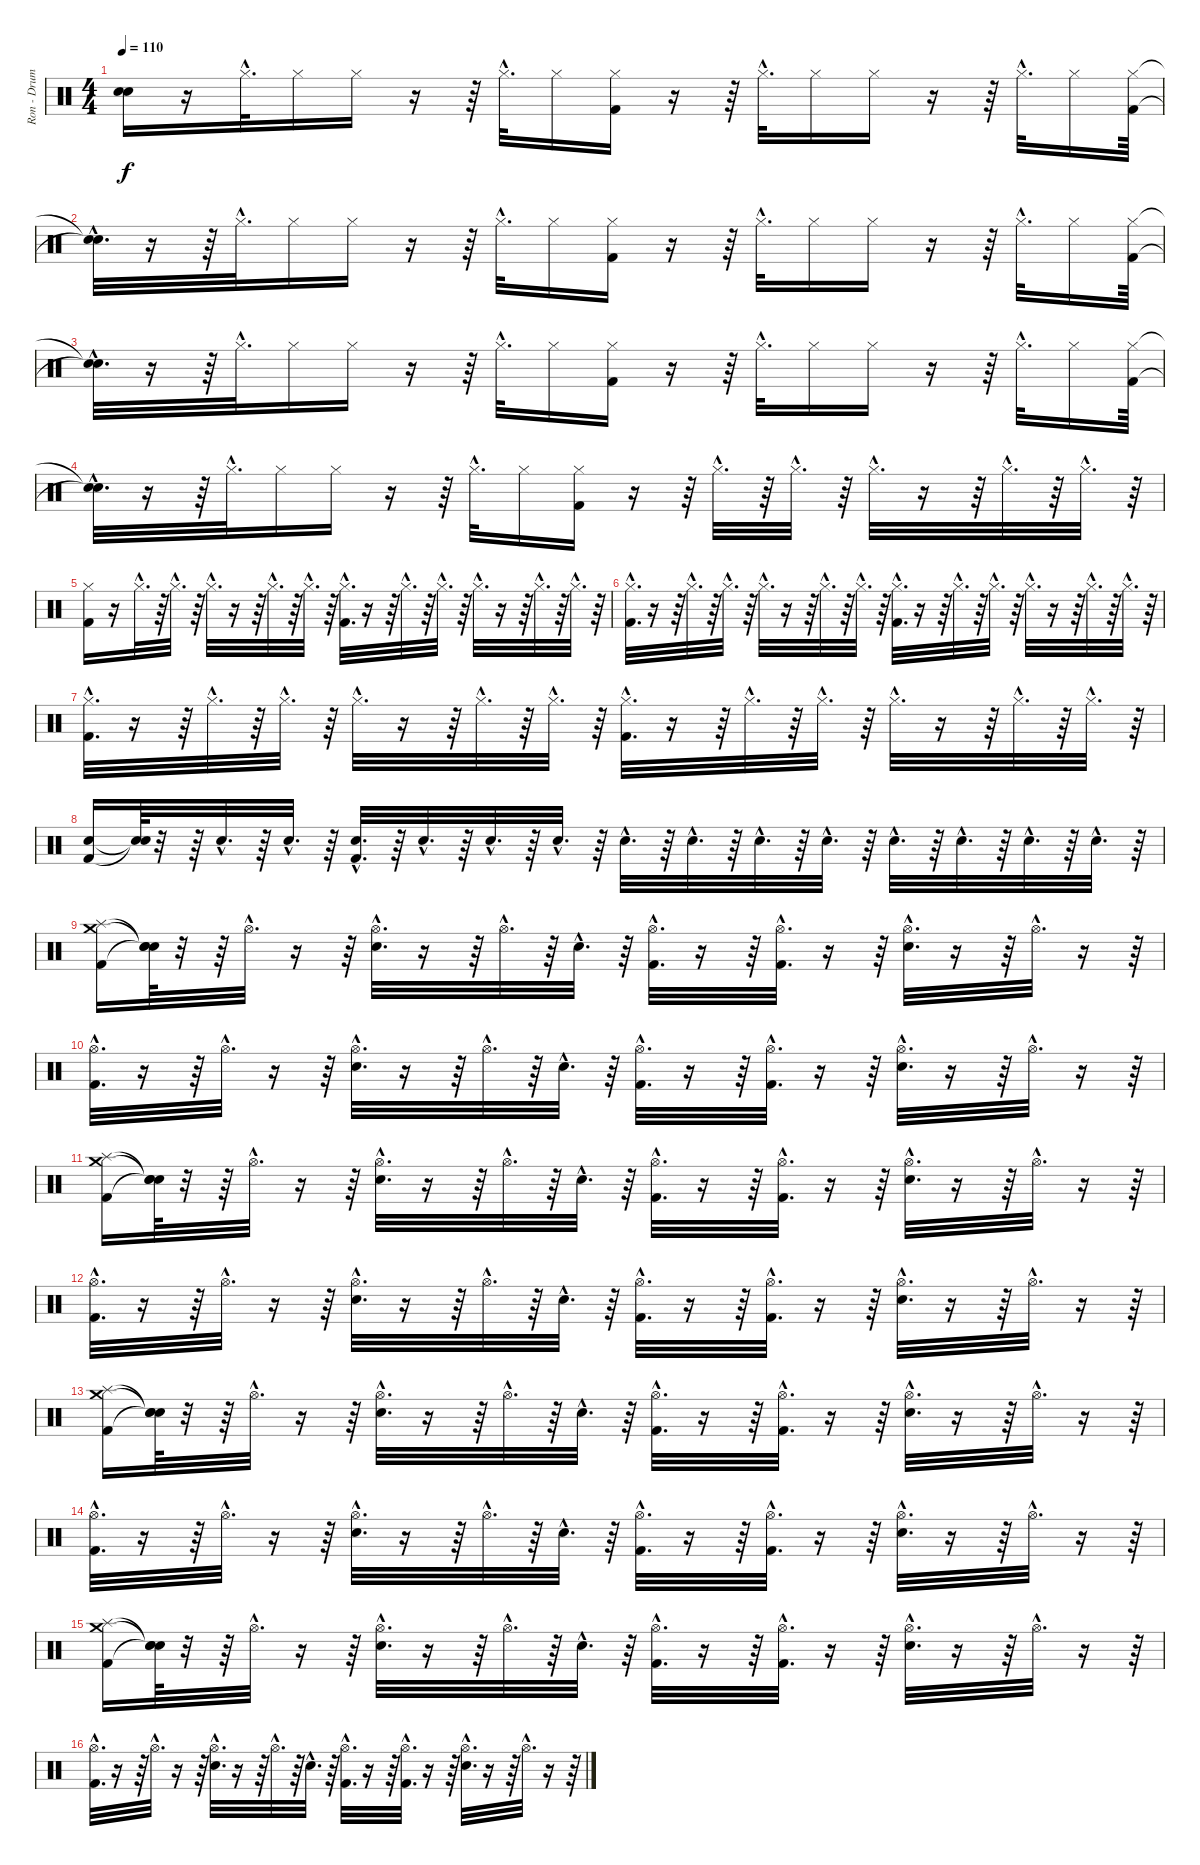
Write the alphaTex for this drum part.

\track ("Ron - Drums" "Ron - Drum") {instrument percussion}
\staff {score}
\articulation defaults
\ts (4 4)
\tempo 110
\clef neutral
\ks c
("Snare (hit)"{t} "Snare (hit)"{t}).16{dy f} r.16 "Hi-Hat (closed)"{hac}.32{d} "Hi-Hat (closed)".16 "Hi-Hat (closed)".16 r.16 r.64 "Hi-Hat (closed)"{hac}.32{d} "Hi-Hat (closed)".16 ("Hi-Hat (closed)" "Kick (hit) 2").16 r.16 r.64 "Hi-Hat (closed)"{hac}.32{d} "Hi-Hat (closed)".16 "Hi-Hat (closed)".16 r.16 r.64 "Hi-Hat (closed)"{hac}.32{d} "Hi-Hat (closed)".16 ("Kick (hit) 2" "Hi-Hat (closed)").64 |
("Snare (hit)"{hac t} "Snare (hit)"{hac t}).32{d} r.16 r.64 "Hi-Hat (closed)"{hac}.32{d} "Hi-Hat (closed)".16 "Hi-Hat (closed)".16 r.16 r.64 "Hi-Hat (closed)"{hac}.32{d} "Hi-Hat (closed)".16 ("Hi-Hat (closed)" "Kick (hit) 2").16 r.16 r.64 "Hi-Hat (closed)"{hac}.32{d} "Hi-Hat (closed)".16 "Hi-Hat (closed)".16 r.16 r.64 "Hi-Hat (closed)"{hac}.32{d} "Hi-Hat (closed)".16 ("Kick (hit) 2" "Hi-Hat (closed)").64 |
("Snare (hit)"{hac t} "Snare (hit)"{hac t}).32{d} r.16 r.64 "Hi-Hat (closed)"{hac}.32{d} "Hi-Hat (closed)".16 "Hi-Hat (closed)".16 r.16 r.64 "Hi-Hat (closed)"{hac}.32{d} "Hi-Hat (closed)".16 ("Hi-Hat (closed)" "Kick (hit) 2").16 r.16 r.64 "Hi-Hat (closed)"{hac}.32{d} "Hi-Hat (closed)".16 "Hi-Hat (closed)".16 r.16 r.64 "Hi-Hat (closed)"{hac}.32{d} "Hi-Hat (closed)".16 ("Kick (hit) 2" "Hi-Hat (closed)").64 |
("Snare (hit)"{hac t} "Snare (hit)"{hac t}).32{d} r.16 r.64 "Hi-Hat (closed)"{hac}.32{d} "Hi-Hat (closed)".16 "Hi-Hat (closed)".16 r.16 r.64 "Hi-Hat (closed)"{hac}.32{d} "Hi-Hat (closed)".16 ("Hi-Hat (closed)" "Kick (hit) 2").16 r.16 r.64 "Hi-Hat (closed)"{hac}.32{d} r.64 "Hi-Hat (closed)"{hac}.32{d} r.64 "Hi-Hat (closed)"{hac}.32{d} r.16 r.64 "Hi-Hat (closed)"{hac}.32{d} r.64 "Hi-Hat (closed)"{hac}.32{d} r.64 |
("Kick (hit) 2" "Hi-Hat (closed)").16 r.16 "Hi-Hat (closed)"{hac}.32{d} r.64 "Hi-Hat (closed)"{hac}.32{d} r.64 "Hi-Hat (closed)"{hac}.32{d} r.16 r.64 "Hi-Hat (closed)"{hac}.32{d} r.64 "Hi-Hat (closed)"{hac}.32{d} r.64 ("Hi-Hat (closed)"{hac} "Kick (hit) 2"{hac}).32{d} r.16 r.64 "Hi-Hat (closed)"{hac}.32{d} r.64 "Hi-Hat (closed)"{hac}.32{d} r.64 "Hi-Hat (closed)"{hac}.32{d} r.16 r.64 "Hi-Hat (closed)"{hac}.32{d} r.64 "Hi-Hat (closed)"{hac}.32{d} r.64 |
("Kick (hit) 2"{hac} "Hi-Hat (closed)"{hac}).32{d} r.16 r.64 "Hi-Hat (closed)"{hac}.32{d} r.64 "Hi-Hat (closed)"{hac}.32{d} r.64 "Hi-Hat (closed)"{hac}.32{d} r.16 r.64 "Hi-Hat (closed)"{hac}.32{d} r.64 "Hi-Hat (closed)"{hac}.32{d} r.64 ("Hi-Hat (closed)"{hac} "Kick (hit) 2"{hac}).32{d} r.16 r.64 "Hi-Hat (closed)"{hac}.32{d} r.64 "Hi-Hat (closed)"{hac}.32{d} r.64 "Hi-Hat (closed)"{hac}.32{d} r.16 r.64 "Hi-Hat (closed)"{hac}.32{d} r.64 "Hi-Hat (closed)"{hac}.32{d} r.64 |
("Kick (hit) 2"{hac} "Hi-Hat (closed)"{hac}).32{d} r.16 r.64 "Hi-Hat (closed)"{hac}.32{d} r.64 "Hi-Hat (closed)"{hac}.32{d} r.64 "Hi-Hat (closed)"{hac}.32{d} r.16 r.64 "Hi-Hat (closed)"{hac}.32{d} r.64 "Hi-Hat (closed)"{hac}.32{d} r.64 ("Hi-Hat (closed)"{hac} "Kick (hit) 2"{hac}).32{d} r.16 r.64 "Hi-Hat (closed)"{hac}.32{d} r.64 "Hi-Hat (closed)"{hac}.32{d} r.64 "Hi-Hat (closed)"{hac}.32{d} r.16 r.64 "Hi-Hat (closed)"{hac}.32{d} r.64 "Hi-Hat (closed)"{hac}.32{d} r.64 |
("Kick (hit) 2" "Electric Snare (hit)").16 ("Snare (hit)"{t} "Snare (hit)"{t}).64 r.32 r.64 "Electric Snare (hit)"{hac}.32{d} r.64 "Electric Snare (hit)"{hac}.32{d} r.64 ("Electric Snare (hit)"{hac} "Kick (hit) 2"{hac}).32{d} r.64 "Electric Snare (hit)"{hac}.32{d} r.64 "Electric Snare (hit)"{hac}.32{d} r.64 "Electric Snare (hit)"{hac}.32{d} r.64 "Electric Snare (hit)"{hac}.32{d} r.64 "Electric Snare (hit)"{hac}.32{d} r.64 "Electric Snare (hit)"{hac}.32{d} r.64 "Electric Snare (hit)"{hac}.32{d} r.64 "Electric Snare (hit)"{hac}.32{d} r.64 "Electric Snare (hit)"{hac}.32{d} r.64 "Electric Snare (hit)"{hac}.32{d} r.64 "Electric Snare (hit)"{hac}.32{d} r.64 |
("Crash medium (hit)" "Splash (hit)" "Kick (hit) 2").16 ("Snare (hit)"{t} "Snare (hit)"{t} "Snare (hit)"{t}).64 r.32 r.64 "Hi-Hat (open)"{hac}.32{d} r.16 r.64 ("Hi-Hat (open)"{hac} "Electric Snare (hit)"{hac}).32{d} r.16 r.64 "Hi-Hat (open)"{hac}.32{d} r.64 "Electric Snare (hit)"{hac}.32{d} r.64 ("Hi-Hat (open)"{hac} "Kick (hit) 2"{hac}).32{d} r.16 r.64 ("Hi-Hat (open)"{hac} "Kick (hit) 2"{hac}).32{d} r.16 r.64 ("Hi-Hat (open)"{hac} "Electric Snare (hit)"{hac}).32{d} r.16 r.64 "Hi-Hat (open)"{hac}.32{d} r.16 r.64 |
("Hi-Hat (open)"{hac} "Kick (hit) 2"{hac}).32{d} r.16 r.64 "Hi-Hat (open)"{hac}.32{d} r.16 r.64 ("Hi-Hat (open)"{hac} "Electric Snare (hit)"{hac}).32{d} r.16 r.64 "Hi-Hat (open)"{hac}.32{d} r.64 "Electric Snare (hit)"{hac}.32{d} r.64 ("Hi-Hat (open)"{hac} "Kick (hit) 2"{hac}).32{d} r.16 r.64 ("Hi-Hat (open)"{hac} "Kick (hit) 2"{hac}).32{d} r.16 r.64 ("Hi-Hat (open)"{hac} "Electric Snare (hit)"{hac}).32{d} r.16 r.64 "Hi-Hat (open)"{hac}.32{d} r.16 r.64 |
("Crash medium (hit)" "Splash (hit)" "Kick (hit) 2").16 ("Snare (hit)"{t} "Snare (hit)"{t} "Snare (hit)"{t}).64 r.32 r.64 "Hi-Hat (open)"{hac}.32{d} r.16 r.64 ("Hi-Hat (open)"{hac} "Electric Snare (hit)"{hac}).32{d} r.16 r.64 "Hi-Hat (open)"{hac}.32{d} r.64 "Electric Snare (hit)"{hac}.32{d} r.64 ("Hi-Hat (open)"{hac} "Kick (hit) 2"{hac}).32{d} r.16 r.64 ("Hi-Hat (open)"{hac} "Kick (hit) 2"{hac}).32{d} r.16 r.64 ("Hi-Hat (open)"{hac} "Electric Snare (hit)"{hac}).32{d} r.16 r.64 "Hi-Hat (open)"{hac}.32{d} r.16 r.64 |
("Hi-Hat (open)"{hac} "Kick (hit) 2"{hac}).32{d} r.16 r.64 "Hi-Hat (open)"{hac}.32{d} r.16 r.64 ("Hi-Hat (open)"{hac} "Electric Snare (hit)"{hac}).32{d} r.16 r.64 "Hi-Hat (open)"{hac}.32{d} r.64 "Electric Snare (hit)"{hac}.32{d} r.64 ("Hi-Hat (open)"{hac} "Kick (hit) 2"{hac}).32{d} r.16 r.64 ("Hi-Hat (open)"{hac} "Kick (hit) 2"{hac}).32{d} r.16 r.64 ("Hi-Hat (open)"{hac} "Electric Snare (hit)"{hac}).32{d} r.16 r.64 "Hi-Hat (open)"{hac}.32{d} r.16 r.64 |
("Crash medium (hit)" "Splash (hit)" "Kick (hit) 2").16 ("Snare (hit)"{t} "Snare (hit)"{t} "Snare (hit)"{t}).64 r.32 r.64 "Hi-Hat (open)"{hac}.32{d} r.16 r.64 ("Hi-Hat (open)"{hac} "Electric Snare (hit)"{hac}).32{d} r.16 r.64 "Hi-Hat (open)"{hac}.32{d} r.64 "Electric Snare (hit)"{hac}.32{d} r.64 ("Hi-Hat (open)"{hac} "Kick (hit) 2"{hac}).32{d} r.16 r.64 ("Hi-Hat (open)"{hac} "Kick (hit) 2"{hac}).32{d} r.16 r.64 ("Hi-Hat (open)"{hac} "Electric Snare (hit)"{hac}).32{d} r.16 r.64 "Hi-Hat (open)"{hac}.32{d} r.16 r.64 |
("Hi-Hat (open)"{hac} "Kick (hit) 2"{hac}).32{d} r.16 r.64 "Hi-Hat (open)"{hac}.32{d} r.16 r.64 ("Hi-Hat (open)"{hac} "Electric Snare (hit)"{hac}).32{d} r.16 r.64 "Hi-Hat (open)"{hac}.32{d} r.64 "Electric Snare (hit)"{hac}.32{d} r.64 ("Hi-Hat (open)"{hac} "Kick (hit) 2"{hac}).32{d} r.16 r.64 ("Hi-Hat (open)"{hac} "Kick (hit) 2"{hac}).32{d} r.16 r.64 ("Hi-Hat (open)"{hac} "Electric Snare (hit)"{hac}).32{d} r.16 r.64 "Hi-Hat (open)"{hac}.32{d} r.16 r.64 |
("Crash medium (hit)" "Splash (hit)" "Kick (hit) 2").16 ("Snare (hit)"{t} "Snare (hit)"{t} "Snare (hit)"{t}).64 r.32 r.64 "Hi-Hat (open)"{hac}.32{d} r.16 r.64 ("Hi-Hat (open)"{hac} "Electric Snare (hit)"{hac}).32{d} r.16 r.64 "Hi-Hat (open)"{hac}.32{d} r.64 "Electric Snare (hit)"{hac}.32{d} r.64 ("Hi-Hat (open)"{hac} "Kick (hit) 2"{hac}).32{d} r.16 r.64 ("Hi-Hat (open)"{hac} "Kick (hit) 2"{hac}).32{d} r.16 r.64 ("Hi-Hat (open)"{hac} "Electric Snare (hit)"{hac}).32{d} r.16 r.64 "Hi-Hat (open)"{hac}.32{d} r.16 r.64 |
("Hi-Hat (open)"{hac} "Kick (hit) 2"{hac}).32{d} r.16 r.64 "Hi-Hat (open)"{hac}.32{d} r.16 r.64 ("Hi-Hat (open)"{hac} "Electric Snare (hit)"{hac}).32{d} r.16 r.64 "Hi-Hat (open)"{hac}.32{d} r.64 "Electric Snare (hit)"{hac}.32{d} r.64 ("Hi-Hat (open)"{hac} "Kick (hit) 2"{hac}).32{d} r.16 r.64 ("Hi-Hat (open)"{hac} "Kick (hit) 2"{hac}).32{d} r.16 r.64 ("Hi-Hat (open)"{hac} "Electric Snare (hit)"{hac}).32{d} r.16 r.64 "Hi-Hat (open)"{hac}.32{d} r.16 r.64
